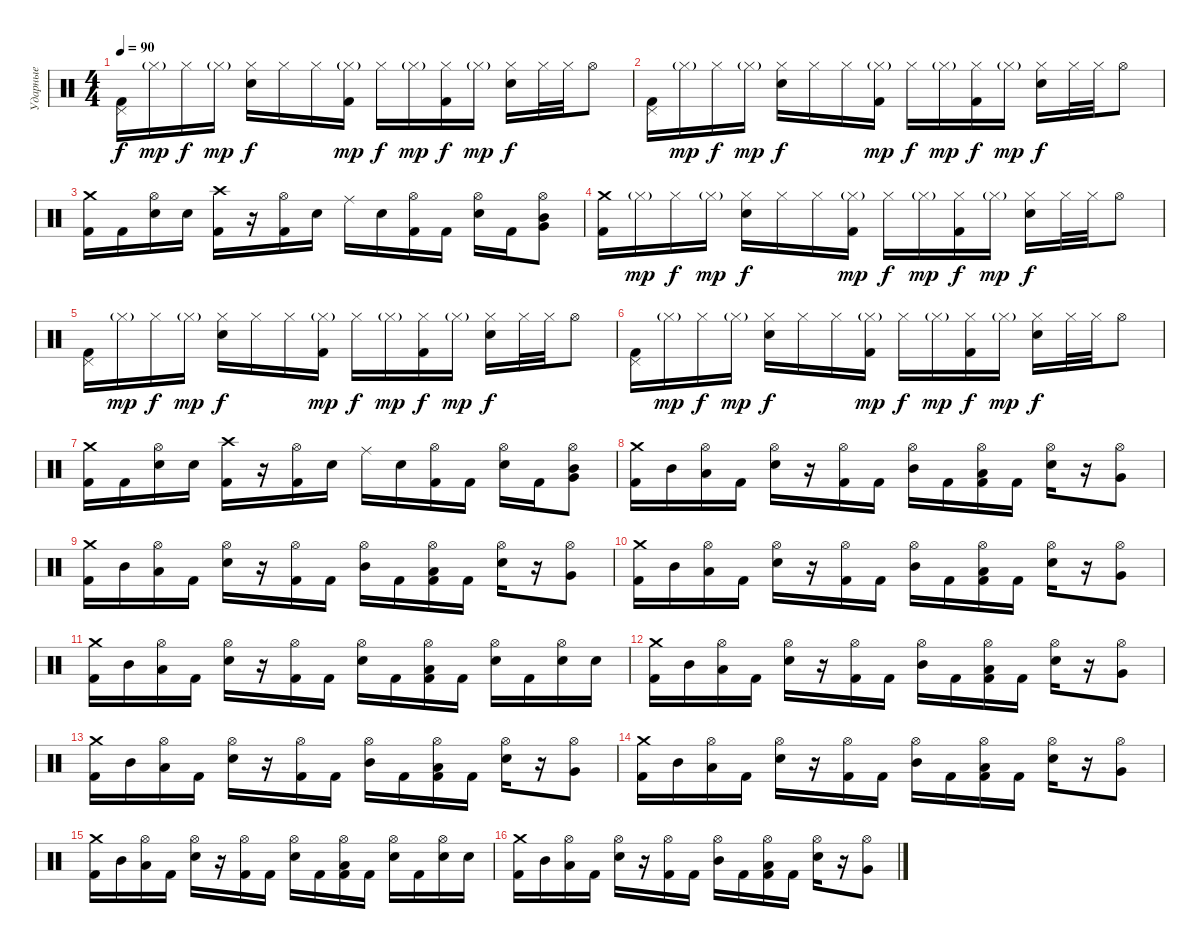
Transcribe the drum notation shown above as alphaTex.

\track ("Ударные" "Ударные") {instrument percussion}
\staff {score}
\articulation defaults
\ts (4 4)
\tempo 90
\clef neutral
\ks c
("Pedal Hi-Hat (hit)" "Kick (hit) 2").16{dy f} "Hi-Hat (closed)"{g}.16{dy mp} "Hi-Hat (closed)".16{dy f} "Hi-Hat (closed)"{g}.16{dy mp} ("Hi-Hat (closed)" "Snare (hit) 2").16{dy f} "Hi-Hat (closed)".16 "Hi-Hat (closed)".16 ("Hi-Hat (closed)"{g} "Kick (hit) 2").16{dy mp} "Hi-Hat (closed)".16{dy f} "Hi-Hat (closed)"{g}.16{dy mp} ("Hi-Hat (closed)" "Kick (hit) 2").16{dy f} "Hi-Hat (closed)"{g}.16{dy mp} ("Hi-Hat (closed)" "Snare (hit) 2").16{dy f} "Hi-Hat (closed)".32 "Hi-Hat (closed)".32 "Hi-Hat (open)".8 |
("Pedal Hi-Hat (hit)" "Kick (hit) 2").16 "Hi-Hat (closed)"{g}.16{dy mp} "Hi-Hat (closed)".16{dy f} "Hi-Hat (closed)"{g}.16{dy mp} ("Hi-Hat (closed)" "Snare (hit) 2").16{dy f} "Hi-Hat (closed)".16 "Hi-Hat (closed)".16 ("Hi-Hat (closed)"{g} "Kick (hit) 2").16{dy mp} "Hi-Hat (closed)".16{dy f} "Hi-Hat (closed)"{g}.16{dy mp} ("Hi-Hat (closed)" "Kick (hit) 2").16{dy f} "Hi-Hat (closed)"{g}.16{dy mp} ("Hi-Hat (closed)" "Snare (hit) 2").16{dy f} "Hi-Hat (closed)".32 "Hi-Hat (closed)".32 "Hi-Hat (open)".8 |
("Crash medium (hit)" "Kick (hit) 2").16 "Kick (hit) 2".16 ("Hi-Hat (open)" "Snare (hit) 2").16 "Snare (hit) 2".16 ("Crash high (hit)" "Kick (hit) 2").16 r.16 ("Hi-Hat (open)" "Kick (hit) 2").16 "Snare (hit) 2".16 "Ride (middle)".16 "Snare (hit) 2".16 ("Hi-Hat (open)" "Kick (hit) 2").16 "Kick (hit) 2".16 ("Hi-Hat (open)" "Snare (hit) 2").16 "Kick (hit) 2".16 ("Hi-Hat (open)" "Very Low Tom (hit)" "Mid Tom (hit)").8 |
("Crash medium (hit)" "Kick (hit) 2").16 "Hi-Hat (closed)"{g}.16{dy mp} "Hi-Hat (closed)".16{dy f} "Hi-Hat (closed)"{g}.16{dy mp} ("Hi-Hat (closed)" "Snare (hit) 2").16{dy f} "Hi-Hat (closed)".16 "Hi-Hat (closed)".16 ("Hi-Hat (closed)"{g} "Kick (hit) 2").16{dy mp} "Hi-Hat (closed)".16{dy f} "Hi-Hat (closed)"{g}.16{dy mp} ("Hi-Hat (closed)" "Kick (hit) 2").16{dy f} "Hi-Hat (closed)"{g}.16{dy mp} ("Hi-Hat (closed)" "Snare (hit) 2").16{dy f} "Hi-Hat (closed)".32 "Hi-Hat (closed)".32 "Hi-Hat (open)".8 |
("Pedal Hi-Hat (hit)" "Kick (hit) 2").16 "Hi-Hat (closed)"{g}.16{dy mp} "Hi-Hat (closed)".16{dy f} "Hi-Hat (closed)"{g}.16{dy mp} ("Hi-Hat (closed)" "Snare (hit) 2").16{dy f} "Hi-Hat (closed)".16 "Hi-Hat (closed)".16 ("Hi-Hat (closed)"{g} "Kick (hit) 2").16{dy mp} "Hi-Hat (closed)".16{dy f} "Hi-Hat (closed)"{g}.16{dy mp} ("Hi-Hat (closed)" "Kick (hit) 2").16{dy f} "Hi-Hat (closed)"{g}.16{dy mp} ("Hi-Hat (closed)" "Snare (hit) 2").16{dy f} "Hi-Hat (closed)".32 "Hi-Hat (closed)".32 "Hi-Hat (open)".8 |
("Pedal Hi-Hat (hit)" "Kick (hit) 2").16 "Hi-Hat (closed)"{g}.16{dy mp} "Hi-Hat (closed)".16{dy f} "Hi-Hat (closed)"{g}.16{dy mp} ("Hi-Hat (closed)" "Snare (hit) 2").16{dy f} "Hi-Hat (closed)".16 "Hi-Hat (closed)".16 ("Hi-Hat (closed)"{g} "Kick (hit) 2").16{dy mp} "Hi-Hat (closed)".16{dy f} "Hi-Hat (closed)"{g}.16{dy mp} ("Hi-Hat (closed)" "Kick (hit) 2").16{dy f} "Hi-Hat (closed)"{g}.16{dy mp} ("Hi-Hat (closed)" "Snare (hit) 2").16{dy f} "Hi-Hat (closed)".32 "Hi-Hat (closed)".32 "Hi-Hat (open)".8 |
("Crash medium (hit)" "Kick (hit) 2").16 "Kick (hit) 2".16 ("Hi-Hat (open)" "Snare (hit) 2").16 "Snare (hit) 2".16 ("Crash high (hit)" "Kick (hit) 2").16 r.16 ("Hi-Hat (open)" "Kick (hit) 2").16 "Snare (hit) 2".16 "Ride (middle)".16 "Snare (hit) 2".16 ("Hi-Hat (open)" "Kick (hit) 2").16 "Kick (hit) 2".16 ("Hi-Hat (open)" "Snare (hit) 2").16 "Kick (hit) 2".16 ("Hi-Hat (open)" "Very Low Tom (hit)" "Mid Tom (hit)").8 |
("Crash medium (hit)" "Kick (hit) 2").16 "Mid Tom (hit)".16 ("Hi-Hat (open)" "Low Tom (hit)").16 "Kick (hit) 2".16 ("Hi-Hat (open)" "Snare (hit) 2").16 r.16 ("Hi-Hat (open)" "Kick (hit) 2").16 "Kick (hit) 2".16 ("Hi-Hat (open)" "Mid Tom (hit)").16 "Kick (hit) 2".16 ("Hi-Hat (open)" "Low Tom (hit)" "Kick (hit) 2").16 "Kick (hit) 2".16 ("Hi-Hat (open)" "Snare (hit) 2").16 r.16 ("Hi-Hat (open)" "Very Low Tom (hit)").8 |
("Crash medium (hit)" "Kick (hit) 2").16 "Mid Tom (hit)".16 ("Hi-Hat (open)" "Low Tom (hit)").16 "Kick (hit) 2".16 ("Hi-Hat (open)" "Snare (hit) 2").16 r.16 ("Hi-Hat (open)" "Kick (hit) 2").16 "Kick (hit) 2".16 ("Hi-Hat (open)" "Mid Tom (hit)").16 "Kick (hit) 2".16 ("Hi-Hat (open)" "Low Tom (hit)" "Kick (hit) 2").16 "Kick (hit) 2".16 ("Hi-Hat (open)" "Snare (hit) 2").16 r.16 ("Hi-Hat (open)" "Very Low Tom (hit)").8 |
("Crash medium (hit)" "Kick (hit) 2").16 "Mid Tom (hit)".16 ("Hi-Hat (open)" "Low Tom (hit)").16 "Kick (hit) 2".16 ("Hi-Hat (open)" "Snare (hit) 2").16 r.16 ("Hi-Hat (open)" "Kick (hit) 2").16 "Kick (hit) 2".16 ("Hi-Hat (open)" "Mid Tom (hit)").16 "Kick (hit) 2".16 ("Hi-Hat (open)" "Low Tom (hit)" "Kick (hit) 2").16 "Kick (hit) 2".16 ("Hi-Hat (open)" "Snare (hit) 2").16 r.16 ("Hi-Hat (open)" "Very Low Tom (hit)").8 |
("Crash medium (hit)" "Kick (hit) 2").16 "Mid Tom (hit)".16 ("Hi-Hat (open)" "Low Tom (hit)").16 "Kick (hit) 2".16 ("Hi-Hat (open)" "Snare (hit) 2").16 r.16 ("Hi-Hat (open)" "Kick (hit) 2").16 "Kick (hit) 2".16 ("Hi-Hat (open)" "Snare (hit) 2").16 "Kick (hit) 2".16 ("Hi-Hat (open)" "Low Tom (hit)" "Kick (hit) 2").16 "Kick (hit) 2".16 ("Hi-Hat (open)" "Snare (hit) 2").16 "Kick (hit) 2".16 ("Hi-Hat (open)" "Snare (hit) 2").16 "Snare (hit) 2".16 |
("Crash medium (hit)" "Kick (hit) 2").16 "Mid Tom (hit)".16 ("Hi-Hat (open)" "Low Tom (hit)").16 "Kick (hit) 2".16 ("Hi-Hat (open)" "Snare (hit) 2").16 r.16 ("Hi-Hat (open)" "Kick (hit) 2").16 "Kick (hit) 2".16 ("Hi-Hat (open)" "Mid Tom (hit)").16 "Kick (hit) 2".16 ("Hi-Hat (open)" "Low Tom (hit)" "Kick (hit) 2").16 "Kick (hit) 2".16 ("Hi-Hat (open)" "Snare (hit) 2").16 r.16 ("Hi-Hat (open)" "Very Low Tom (hit)").8 |
("Crash medium (hit)" "Kick (hit) 2").16 "Mid Tom (hit)".16 ("Hi-Hat (open)" "Low Tom (hit)").16 "Kick (hit) 2".16 ("Hi-Hat (open)" "Snare (hit) 2").16 r.16 ("Hi-Hat (open)" "Kick (hit) 2").16 "Kick (hit) 2".16 ("Hi-Hat (open)" "Mid Tom (hit)").16 "Kick (hit) 2".16 ("Hi-Hat (open)" "Low Tom (hit)" "Kick (hit) 2").16 "Kick (hit) 2".16 ("Hi-Hat (open)" "Snare (hit) 2").16 r.16 ("Hi-Hat (open)" "Very Low Tom (hit)").8 |
("Crash medium (hit)" "Kick (hit) 2").16 "Mid Tom (hit)".16 ("Hi-Hat (open)" "Low Tom (hit)").16 "Kick (hit) 2".16 ("Hi-Hat (open)" "Snare (hit) 2").16 r.16 ("Hi-Hat (open)" "Kick (hit) 2").16 "Kick (hit) 2".16 ("Hi-Hat (open)" "Mid Tom (hit)").16 "Kick (hit) 2".16 ("Hi-Hat (open)" "Low Tom (hit)" "Kick (hit) 2").16 "Kick (hit) 2".16 ("Hi-Hat (open)" "Snare (hit) 2").16 r.16 ("Hi-Hat (open)" "Very Low Tom (hit)").8 |
("Crash medium (hit)" "Kick (hit) 2").16 "Mid Tom (hit)".16 ("Hi-Hat (open)" "Low Tom (hit)").16 "Kick (hit) 2".16 ("Hi-Hat (open)" "Snare (hit) 2").16 r.16 ("Hi-Hat (open)" "Kick (hit) 2").16 "Kick (hit) 2".16 ("Hi-Hat (open)" "Snare (hit) 2").16 "Kick (hit) 2".16 ("Hi-Hat (open)" "Low Tom (hit)" "Kick (hit) 2").16 "Kick (hit) 2".16 ("Hi-Hat (open)" "Snare (hit) 2").16 "Kick (hit) 2".16 ("Hi-Hat (open)" "Snare (hit) 2").16 "Snare (hit) 2".16 |
("Crash medium (hit)" "Kick (hit) 2").16 "Mid Tom (hit)".16 ("Hi-Hat (open)" "Low Tom (hit)").16 "Kick (hit) 2".16 ("Hi-Hat (open)" "Snare (hit) 2").16 r.16 ("Hi-Hat (open)" "Kick (hit) 2").16 "Kick (hit) 2".16 ("Hi-Hat (open)" "Mid Tom (hit)").16 "Kick (hit) 2".16 ("Hi-Hat (open)" "Low Tom (hit)" "Kick (hit) 2").16 "Kick (hit) 2".16 ("Hi-Hat (open)" "Snare (hit) 2").16 r.16 ("Hi-Hat (open)" "Very Low Tom (hit)").8
